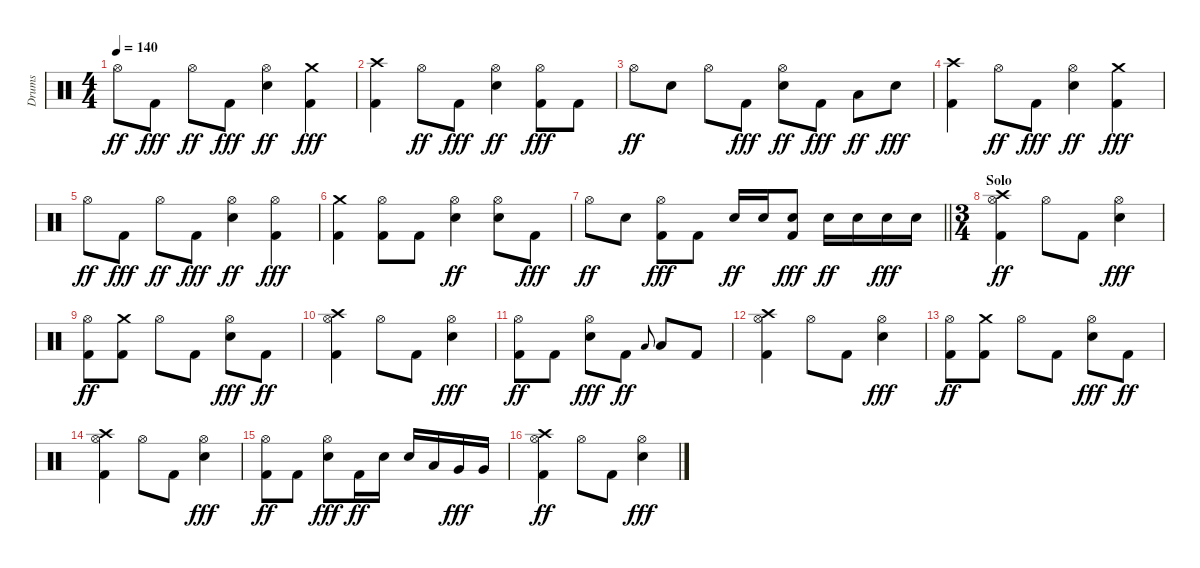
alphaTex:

\track ("Drums" "Drums") {instrument percussion}
\staff {score}
\articulation defaults
\ts (4 4)
\tempo 140
\clef neutral
\ks c "Hi-Hat (open)".8{dy ff} "Kick (hit) 2".8{dy fff} "Hi-Hat (open)".8{dy ff} "Kick (hit) 2".8{dy fff}
("Hi-Hat (open)" "Snare (hit) 2").4{dy ff} ("Crash medium (hit)" "Kick (hit) 2").4{dy fff} |
("Crash high (hit)" "Kick (hit) 2").4 "Hi-Hat (open)".8{dy ff} "Kick (hit) 2".8{dy fff} ("Hi-Hat (open)" "Snare (hit) 2").4{dy ff} ("Hi-Hat (open)" "Kick (hit) 2").8{dy fff} "Kick (hit) 2".8 |
"Hi-Hat (open)".8{dy ff} "Snare (hit) 2".8 "Hi-Hat (open)".8 "Kick (hit) 2".8{dy fff} ("Hi-Hat (open)" "Snare (hit) 2").8{dy ff} "Kick (hit) 2".8{dy fff} "Low Tom (hit)".8{dy ff} "Snare (hit) 2".8{dy fff} |
("Crash high (hit)" "Kick (hit) 2").4 "Hi-Hat (open)".8{dy ff} "Kick (hit) 2".8{dy fff} ("Hi-Hat (open)" "Snare (hit) 2").4{dy ff} ("Crash medium (hit)" "Kick (hit) 2").4{dy fff} |
"Hi-Hat (open)".8{dy ff} "Kick (hit) 2".8{dy fff} "Hi-Hat (open)".8{dy ff} "Kick (hit) 2".8{dy fff} ("Hi-Hat (open)" "Snare (hit) 2").4{dy ff} ("Hi-Hat (open)" "Kick (hit) 2").4{dy fff} |
("Crash medium (hit)" "Kick (hit) 2").4 ("Hi-Hat (open)" "Kick (hit) 2").8 "Kick (hit) 2".8 ("Hi-Hat (open)" "Snare (hit) 2").4{dy ff} ("Hi-Hat (open)" "Snare (hit) 2").8 "Kick (hit) 2".8{dy fff} |
\barLineRight lightlight "Hi-Hat (open)".8{dy ff} "Snare (hit) 2".8
("Hi-Hat (open)" "Kick (hit) 2").8{dy fff} "Kick (hit) 2".8 "Snare (hit) 2".16{dy ff} "Snare (hit) 2".16 ("Snare (hit) 2" "Kick (hit) 2").8{dy fff} "Snare (hit) 2".16{dy ff} "Snare (hit) 2".16 "Snare (hit) 2".16{dy fff} "Snare (hit) 2".16 |
\ts (3 4)
\section ("" "Solo")
("Crash high (hit)" "Hi-Hat (open)" "Kick (hit) 2").4{dy ff} "Hi-Hat (open)".8 "Kick (hit) 2".8 ("Hi-Hat (open)" "Snare (hit) 2").4{dy fff} |
("Hi-Hat (open)" "Kick (hit) 2").8{dy ff} ("Crash medium (hit)" "Kick (hit) 2").8 "Hi-Hat (open)".8 "Kick (hit) 2".8 ("Hi-Hat (open)" "Snare (hit) 2").8{dy fff} "Kick (hit) 2".8{dy ff} |
("Crash high (hit)" "Hi-Hat (open)" "Kick (hit) 2").4 "Hi-Hat (open)".8 "Kick (hit) 2".8 ("Hi-Hat (open)" "Snare (hit) 2").4{dy fff} |
("Hi-Hat (open)" "Kick (hit) 2").8{dy ff} "Kick (hit) 2".8 ("Hi-Hat (open)" "Snare (hit) 2").8{dy fff} "Kick (hit) 2".8{dy ff} "Low Tom (hit)".8{gr onbeat} "Low Tom (hit)".8 "Kick (hit) 2".8 |
("Crash high (hit)" "Hi-Hat (open)" "Kick (hit) 2").4 "Hi-Hat (open)".8 "Kick (hit) 2".8 ("Hi-Hat (open)" "Snare (hit) 2").4{dy fff} |
("Hi-Hat (open)" "Kick (hit) 2").8{dy ff} ("Crash medium (hit)" "Kick (hit) 2").8 "Hi-Hat (open)".8 "Kick (hit) 2".8 ("Hi-Hat (open)" "Snare (hit) 2").8{dy fff} "Kick (hit) 2".8{dy ff} |
("Crash high (hit)" "Hi-Hat (open)" "Kick (hit) 2").4 "Hi-Hat (open)".8 "Kick (hit) 2".8 ("Hi-Hat (open)" "Snare (hit) 2").4{dy fff} |
("Hi-Hat (open)" "Kick (hit) 2").8{dy ff} "Kick (hit) 2".8 ("Hi-Hat (open)" "Snare (hit) 2").8{dy fff} "Kick (hit) 2".16{dy ff} "Snare (hit) 2".16 "Snare (hit) 2".16 "Low Tom (hit)".16 "Very Low Tom (hit)".16{dy fff} "Very Low Tom (hit)".16 |
("Crash high (hit)" "Hi-Hat (open)" "Kick (hit) 2").4{dy ff} "Hi-Hat (open)".8 "Kick (hit) 2".8 ("Hi-Hat (open)" "Snare (hit) 2").4{dy fff}
